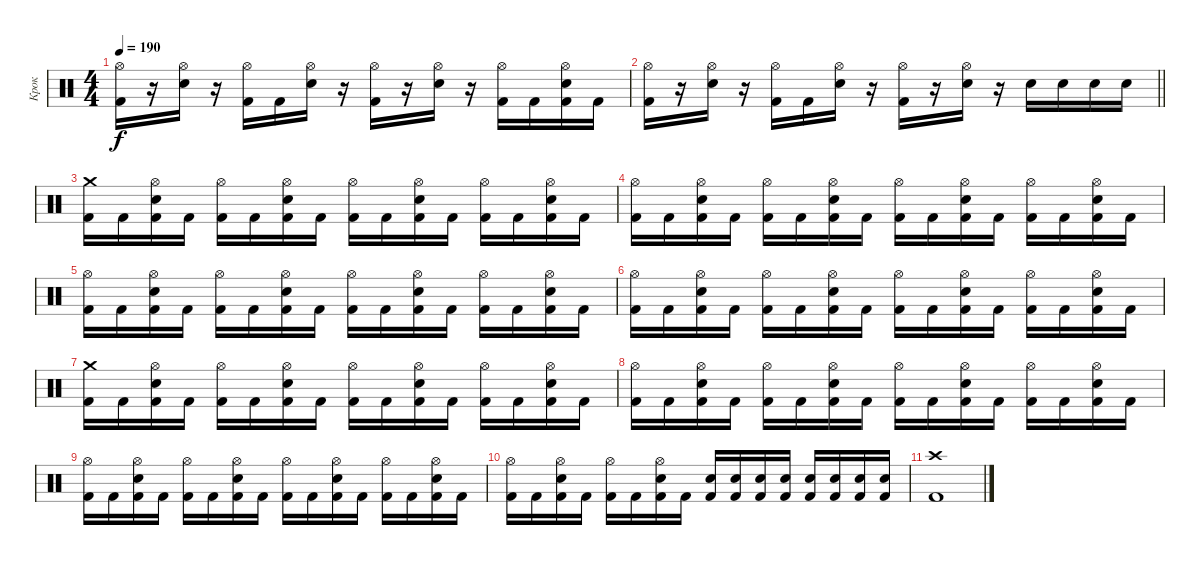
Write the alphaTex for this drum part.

\track ("Крок" "Крок") {instrument percussion}
\staff {score}
\articulation defaults
\ts (4 4)
\tempo 190
\clef neutral
\ks c
("Hi-Hat (open)" "Kick (hit) 2").16{dy f} r.16 ("Hi-Hat (open)" "Electric Snare (hit)").16 r.16 ("Hi-Hat (open)" "Kick (hit) 2").16 "Kick (hit) 2".16 ("Hi-Hat (open)" "Electric Snare (hit)").16 r.16 ("Hi-Hat (open)" "Kick (hit) 2").16 r.16 ("Hi-Hat (open)" "Electric Snare (hit)").16 r.16 ("Hi-Hat (open)" "Kick (hit) 2").16 "Kick (hit) 2".16 ("Hi-Hat (open)" "Electric Snare (hit)" "Kick (hit) 2").16 "Kick (hit) 2".16 |
\barLineRight lightlight
("Hi-Hat (open)" "Kick (hit) 2").16 r.16 ("Hi-Hat (open)" "Electric Snare (hit)").16 r.16 ("Hi-Hat (open)" "Kick (hit) 2").16 "Kick (hit) 2".16 ("Hi-Hat (open)" "Electric Snare (hit)").16 r.16 ("Hi-Hat (open)" "Kick (hit) 2").16 r.16 ("Hi-Hat (open)" "Electric Snare (hit)").16 r.16 "Electric Snare (hit)".16 "Electric Snare (hit)".16 "Electric Snare (hit)".16 "Electric Snare (hit)".16 |
("Crash medium (hit)" "Kick (hit) 2").16 "Kick (hit) 2".16 ("Hi-Hat (open)" "Electric Snare (hit)" "Kick (hit) 2").16 "Kick (hit) 2".16 ("Hi-Hat (open)" "Kick (hit) 2").16 "Kick (hit) 2".16 ("Hi-Hat (open)" "Electric Snare (hit)" "Kick (hit) 2").16 "Kick (hit) 2".16 ("Hi-Hat (open)" "Kick (hit) 2").16 "Kick (hit) 2".16 ("Hi-Hat (open)" "Electric Snare (hit)" "Kick (hit) 2").16 "Kick (hit) 2".16 ("Hi-Hat (open)" "Kick (hit) 2").16 "Kick (hit) 2".16 ("Hi-Hat (open)" "Electric Snare (hit)" "Kick (hit) 2").16 "Kick (hit) 2".16 |
("Hi-Hat (open)" "Kick (hit) 2").16 "Kick (hit) 2".16 ("Hi-Hat (open)" "Electric Snare (hit)" "Kick (hit) 2").16 "Kick (hit) 2".16 ("Hi-Hat (open)" "Kick (hit) 2").16 "Kick (hit) 2".16 ("Hi-Hat (open)" "Electric Snare (hit)" "Kick (hit) 2").16 "Kick (hit) 2".16 ("Hi-Hat (open)" "Kick (hit) 2").16 "Kick (hit) 2".16 ("Hi-Hat (open)" "Electric Snare (hit)" "Kick (hit) 2").16 "Kick (hit) 2".16 ("Hi-Hat (open)" "Kick (hit) 2").16 "Kick (hit) 2".16 ("Hi-Hat (open)" "Electric Snare (hit)" "Kick (hit) 2").16 "Kick (hit) 2".16 |
("Hi-Hat (open)" "Kick (hit) 2").16 "Kick (hit) 2".16 ("Hi-Hat (open)" "Electric Snare (hit)" "Kick (hit) 2").16 "Kick (hit) 2".16 ("Hi-Hat (open)" "Kick (hit) 2").16 "Kick (hit) 2".16 ("Hi-Hat (open)" "Electric Snare (hit)" "Kick (hit) 2").16 "Kick (hit) 2".16 ("Hi-Hat (open)" "Kick (hit) 2").16 "Kick (hit) 2".16 ("Hi-Hat (open)" "Electric Snare (hit)" "Kick (hit) 2").16 "Kick (hit) 2".16 ("Hi-Hat (open)" "Kick (hit) 2").16 "Kick (hit) 2".16 ("Hi-Hat (open)" "Electric Snare (hit)" "Kick (hit) 2").16 "Kick (hit) 2".16 |
("Hi-Hat (open)" "Kick (hit) 2").16 "Kick (hit) 2".16 ("Hi-Hat (open)" "Electric Snare (hit)" "Kick (hit) 2").16 "Kick (hit) 2".16 ("Hi-Hat (open)" "Kick (hit) 2").16 "Kick (hit) 2".16 ("Hi-Hat (open)" "Electric Snare (hit)" "Kick (hit) 2").16 "Kick (hit) 2".16 ("Hi-Hat (open)" "Kick (hit) 2").16 "Kick (hit) 2".16 ("Hi-Hat (open)" "Electric Snare (hit)" "Kick (hit) 2").16 "Kick (hit) 2".16 ("Hi-Hat (open)" "Kick (hit) 2").16 "Kick (hit) 2".16 ("Hi-Hat (open)" "Electric Snare (hit)" "Kick (hit) 2").16 "Kick (hit) 2".16 |
("Crash medium (hit)" "Kick (hit) 2").16 "Kick (hit) 2".16 ("Hi-Hat (open)" "Electric Snare (hit)" "Kick (hit) 2").16 "Kick (hit) 2".16 ("Hi-Hat (open)" "Kick (hit) 2").16 "Kick (hit) 2".16 ("Hi-Hat (open)" "Electric Snare (hit)" "Kick (hit) 2").16 "Kick (hit) 2".16 ("Hi-Hat (open)" "Kick (hit) 2").16 "Kick (hit) 2".16 ("Hi-Hat (open)" "Electric Snare (hit)" "Kick (hit) 2").16 "Kick (hit) 2".16 ("Hi-Hat (open)" "Kick (hit) 2").16 "Kick (hit) 2".16 ("Hi-Hat (open)" "Electric Snare (hit)" "Kick (hit) 2").16 "Kick (hit) 2".16 |
("Hi-Hat (open)" "Kick (hit) 2").16 "Kick (hit) 2".16 ("Hi-Hat (open)" "Electric Snare (hit)" "Kick (hit) 2").16 "Kick (hit) 2".16 ("Hi-Hat (open)" "Kick (hit) 2").16 "Kick (hit) 2".16 ("Hi-Hat (open)" "Electric Snare (hit)" "Kick (hit) 2").16 "Kick (hit) 2".16 ("Hi-Hat (open)" "Kick (hit) 2").16 "Kick (hit) 2".16 ("Hi-Hat (open)" "Electric Snare (hit)" "Kick (hit) 2").16 "Kick (hit) 2".16 ("Hi-Hat (open)" "Kick (hit) 2").16 "Kick (hit) 2".16 ("Hi-Hat (open)" "Electric Snare (hit)" "Kick (hit) 2").16 "Kick (hit) 2".16 |
("Hi-Hat (open)" "Kick (hit) 2").16 "Kick (hit) 2".16 ("Hi-Hat (open)" "Electric Snare (hit)" "Kick (hit) 2").16 "Kick (hit) 2".16 ("Hi-Hat (open)" "Kick (hit) 2").16 "Kick (hit) 2".16 ("Hi-Hat (open)" "Electric Snare (hit)" "Kick (hit) 2").16 "Kick (hit) 2".16 ("Hi-Hat (open)" "Kick (hit) 2").16 "Kick (hit) 2".16 ("Hi-Hat (open)" "Electric Snare (hit)" "Kick (hit) 2").16 "Kick (hit) 2".16 ("Hi-Hat (open)" "Kick (hit) 2").16 "Kick (hit) 2".16 ("Hi-Hat (open)" "Electric Snare (hit)" "Kick (hit) 2").16 "Kick (hit) 2".16 |
("Hi-Hat (open)" "Kick (hit) 2").16 "Kick (hit) 2".16 ("Hi-Hat (open)" "Electric Snare (hit)" "Kick (hit) 2").16 "Kick (hit) 2".16 ("Hi-Hat (open)" "Kick (hit) 2").16 "Kick (hit) 2".16 ("Hi-Hat (open)" "Electric Snare (hit)" "Kick (hit) 2").16 "Kick (hit) 2".16 ("Electric Snare (hit)" "Kick (hit) 2").16 ("Electric Snare (hit)" "Kick (hit) 2").16 ("Electric Snare (hit)" "Kick (hit) 2").16 ("Electric Snare (hit)" "Kick (hit) 2").16 ("Electric Snare (hit)" "Kick (hit) 2").16 ("Electric Snare (hit)" "Kick (hit) 2").16 ("Electric Snare (hit)" "Kick (hit) 2").16 ("Electric Snare (hit)" "Kick (hit) 2").16 |
("Crash high (hit)" "Kick (hit) 2").1
